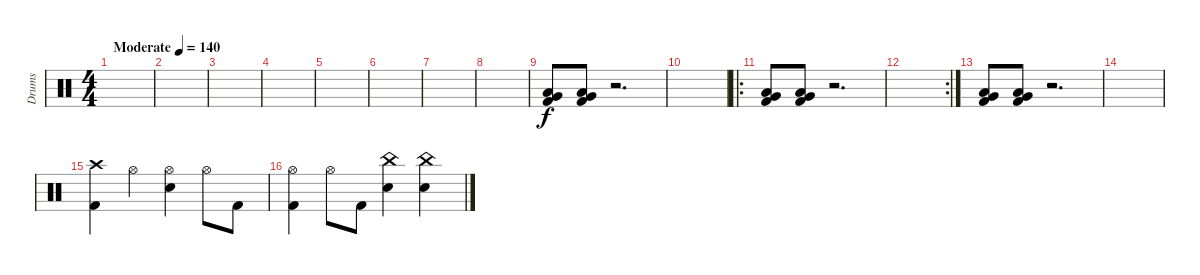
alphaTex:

\track ("Drums" "Drums") {instrument percussion}
\staff {score}
\articulation defaults
\ts (4 4)
\tempo (140 "Moderate")
\clef neutral
\ks c
|
|
|
|
|
|
|
|
("Very Low Tom (hit)" "Low Floor Tom (hit)" "Kick (hit) 2").8 ("Very Low Tom (hit)" "Low Floor Tom (hit)" "Kick (hit) 2").8 r.2{d} |
|
\ro
("Very Low Tom (hit)" "Low Floor Tom (hit)" "Kick (hit) 2").8 ("Very Low Tom (hit)" "Low Floor Tom (hit)" "Kick (hit) 2").8 r.2{d} |
\rc 2
|
("Very Low Tom (hit)" "Low Floor Tom (hit)" "Kick (hit) 2").8 ("Very Low Tom (hit)" "Low Floor Tom (hit)" "Kick (hit) 2").8 r.2{d} |
|
("Crash high (hit)" "Kick (hit) 2").4 "Hi-Hat (open)".4 ("Hi-Hat (open)" "Electric Snare (hit)").4 "Hi-Hat (open)".8 "Kick (hit) 2".8 |
("Hi-Hat (open)" "Kick (hit) 2").4 "Hi-Hat (open)".8 "Kick (hit) 2".8 ("China (hit)" "Electric Snare (hit)").4 ("China (hit)" "Electric Snare (hit)").4
